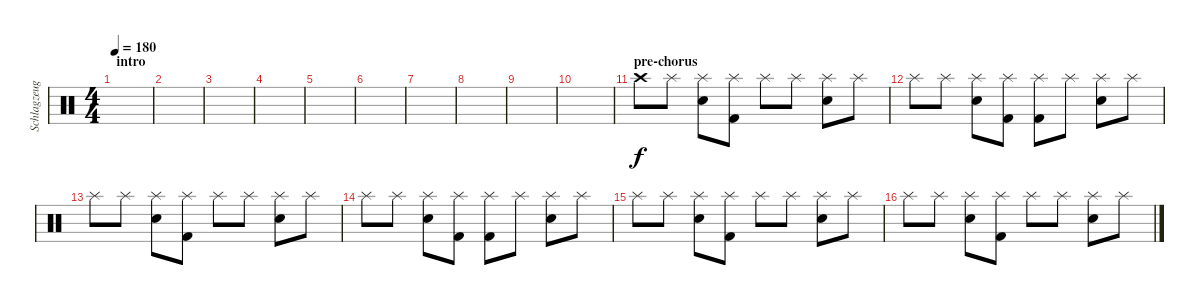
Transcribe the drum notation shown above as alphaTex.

\track ("Schlagzeug" "Schlagzeug") {instrument percussion}
\staff {score}
\articulation defaults
\ts (4 4)
\section ("" "intro")
\tempo 180
\clef neutral
\ks c
|
|
|
|
|
|
|
|
|
|
\section ("" "pre-chorus")
"Crash high (hit)".8 "Splash (hit)".8 ("Splash (hit)" "Electric Snare (hit)").8 ("Splash (hit)" "Kick (hit) 2").8 "Splash (hit)".8 "Splash (hit)".8 ("Splash (hit)" "Electric Snare (hit)").8 "Splash (hit)".8 |
"Splash (hit)".8 "Splash (hit)".8 ("Splash (hit)" "Electric Snare (hit)").8 ("Splash (hit)" "Kick (hit) 2").8 ("Splash (hit)" "Kick (hit) 2").8 "Splash (hit)".8 ("Splash (hit)" "Electric Snare (hit)").8 "Splash (hit)".8 |
"Splash (hit)".8 "Splash (hit)".8 ("Splash (hit)" "Electric Snare (hit)").8 ("Splash (hit)" "Kick (hit) 2").8 "Splash (hit)".8 "Splash (hit)".8 ("Splash (hit)" "Electric Snare (hit)").8 "Splash (hit)".8 |
"Splash (hit)".8 "Splash (hit)".8 ("Splash (hit)" "Electric Snare (hit)").8 ("Splash (hit)" "Kick (hit) 2").8 ("Splash (hit)" "Kick (hit) 2").8 "Splash (hit)".8 ("Splash (hit)" "Electric Snare (hit)").8 "Splash (hit)".8 |
"Splash (hit)".8 "Splash (hit)".8 ("Splash (hit)" "Electric Snare (hit)").8 ("Splash (hit)" "Kick (hit) 2").8 "Splash (hit)".8 "Splash (hit)".8 ("Splash (hit)" "Electric Snare (hit)").8 "Splash (hit)".8 |
"Splash (hit)".8 "Splash (hit)".8 ("Splash (hit)" "Electric Snare (hit)").8 ("Splash (hit)" "Kick (hit) 2").8 "Splash (hit)".8 "Splash (hit)".8 ("Splash (hit)" "Electric Snare (hit)").8 "Splash (hit)".8
